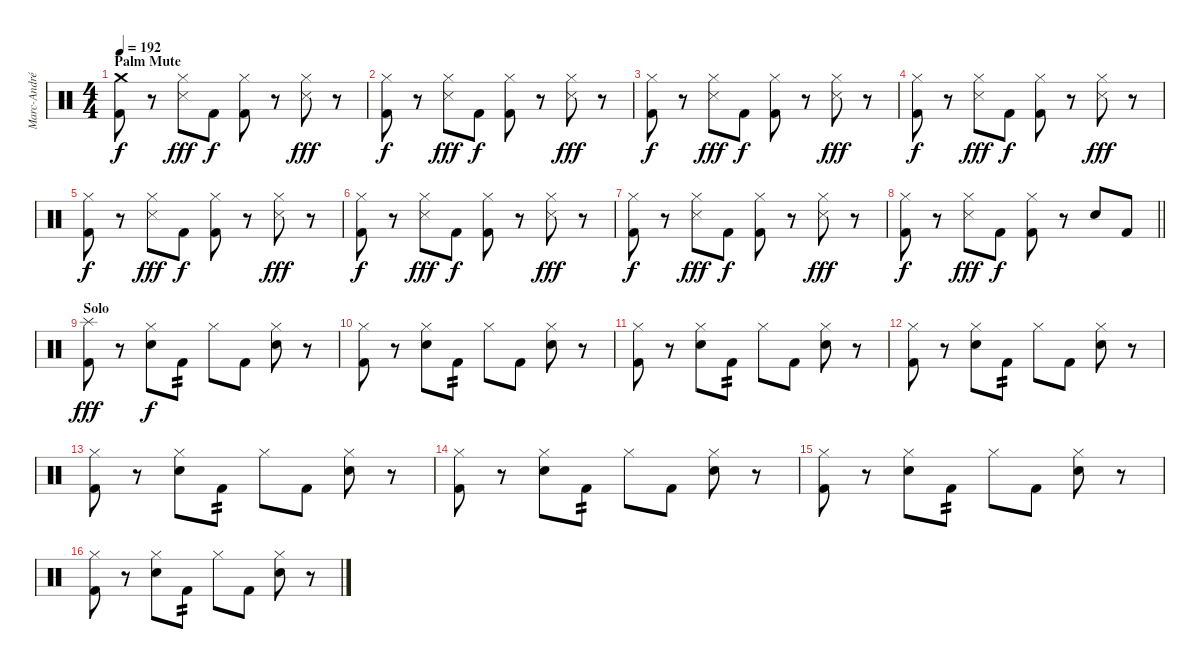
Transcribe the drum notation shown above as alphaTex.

\track ("Marc-André Barabé" "Marc-André") {instrument percussion}
\staff {score}
\articulation defaults
\ts (4 4)
\section ("" "Palm Mute")
\tempo 192
\clef neutral
\ks c
("Crash medium (hit)" "Kick (hit) 2").8{dy f} r.8 ("Hi-Hat (closed)" "Snare (side stick) 3").8{dy fff} "Kick (hit) 2".8{dy f} ("Hi-Hat (closed)" "Kick (hit) 2").8 r.8 ("Hi-Hat (closed)" "Snare (side stick) 3").8{dy fff} r.8 |
("Hi-Hat (closed)" "Kick (hit) 2").8{dy f} r.8 ("Hi-Hat (closed)" "Snare (side stick) 3").8{dy fff} "Kick (hit) 2".8{dy f} ("Hi-Hat (closed)" "Kick (hit) 2").8 r.8 ("Hi-Hat (closed)" "Snare (side stick) 3").8{dy fff} r.8 |
("Hi-Hat (closed)" "Kick (hit) 2").8{dy f} r.8 ("Hi-Hat (closed)" "Snare (side stick) 3").8{dy fff} "Kick (hit) 2".8{dy f} ("Hi-Hat (closed)" "Kick (hit) 2").8 r.8 ("Hi-Hat (closed)" "Snare (side stick) 3").8{dy fff} r.8 |
("Hi-Hat (closed)" "Kick (hit) 2").8{dy f} r.8 ("Hi-Hat (closed)" "Snare (side stick) 3").8{dy fff} "Kick (hit) 2".8{dy f} ("Hi-Hat (closed)" "Kick (hit) 2").8 r.8 ("Hi-Hat (closed)" "Snare (side stick) 3").8{dy fff} r.8 |
("Hi-Hat (closed)" "Kick (hit) 2").8{dy f} r.8 ("Hi-Hat (closed)" "Snare (side stick) 3").8{dy fff} "Kick (hit) 2".8{dy f} ("Hi-Hat (closed)" "Kick (hit) 2").8 r.8 ("Hi-Hat (closed)" "Snare (side stick) 3").8{dy fff} r.8 |
("Hi-Hat (closed)" "Kick (hit) 2").8{dy f} r.8 ("Hi-Hat (closed)" "Snare (side stick) 3").8{dy fff} "Kick (hit) 2".8{dy f} ("Hi-Hat (closed)" "Kick (hit) 2").8 r.8 ("Hi-Hat (closed)" "Snare (side stick) 3").8{dy fff} r.8 |
("Hi-Hat (closed)" "Kick (hit) 2").8{dy f} r.8 ("Hi-Hat (closed)" "Snare (side stick) 3").8{dy fff} "Kick (hit) 2".8{dy f} ("Hi-Hat (closed)" "Kick (hit) 2").8 r.8 ("Hi-Hat (closed)" "Snare (side stick) 3").8{dy fff} r.8 |
\barLineRight lightlight
("Hi-Hat (closed)" "Kick (hit) 2").8{dy f} r.8 ("Hi-Hat (closed)" "Snare (side stick) 3").8{dy fff} "Kick (hit) 2".8{dy f} ("Hi-Hat (closed)" "Kick (hit) 2").8 r.8 "Electric Snare (hit)".8 "Kick (hit) 2".8 |
\section ("" "Solo")
("Splash (hit)" "Kick (hit) 2").8{dy fff} r.8 ("Hi-Hat (closed)" "Electric Snare (hit)").8{dy f} "Kick (hit) 2".8{tp 2} "Hi-Hat (closed)".8 "Kick (hit) 2".8 ("Hi-Hat (closed)" "Electric Snare (hit)").8 r.8 |
("Hi-Hat (closed)" "Kick (hit) 2").8 r.8 ("Hi-Hat (closed)" "Electric Snare (hit)").8 "Kick (hit) 2".8{tp 2} "Hi-Hat (closed)".8 "Kick (hit) 2".8 ("Hi-Hat (closed)" "Electric Snare (hit)").8 r.8 |
("Hi-Hat (closed)" "Kick (hit) 2").8 r.8 ("Hi-Hat (closed)" "Electric Snare (hit)").8 "Kick (hit) 2".8{tp 2} "Hi-Hat (closed)".8 "Kick (hit) 2".8 ("Hi-Hat (closed)" "Electric Snare (hit)").8 r.8 |
("Hi-Hat (closed)" "Kick (hit) 2").8 r.8 ("Hi-Hat (closed)" "Electric Snare (hit)").8 "Kick (hit) 2".8{tp 2} "Hi-Hat (closed)".8 "Kick (hit) 2".8 ("Hi-Hat (closed)" "Electric Snare (hit)").8 r.8 |
("Hi-Hat (closed)" "Kick (hit) 2").8 r.8 ("Hi-Hat (closed)" "Electric Snare (hit)").8 "Kick (hit) 2".8{tp 2} "Hi-Hat (closed)".8 "Kick (hit) 2".8 ("Hi-Hat (closed)" "Electric Snare (hit)").8 r.8 |
("Hi-Hat (closed)" "Kick (hit) 2").8 r.8 ("Hi-Hat (closed)" "Electric Snare (hit)").8 "Kick (hit) 2".8{tp 2} "Hi-Hat (closed)".8 "Kick (hit) 2".8 ("Hi-Hat (closed)" "Electric Snare (hit)").8 r.8 |
("Hi-Hat (closed)" "Kick (hit) 2").8 r.8 ("Hi-Hat (closed)" "Electric Snare (hit)").8 "Kick (hit) 2".8{tp 2} "Hi-Hat (closed)".8 "Kick (hit) 2".8 ("Hi-Hat (closed)" "Electric Snare (hit)").8 r.8 |
("Hi-Hat (closed)" "Kick (hit) 2").8 r.8 ("Hi-Hat (closed)" "Electric Snare (hit)").8 "Kick (hit) 2".8{tp 2} "Hi-Hat (closed)".8 "Kick (hit) 2".8 ("Hi-Hat (closed)" "Electric Snare (hit)").8 r.8
